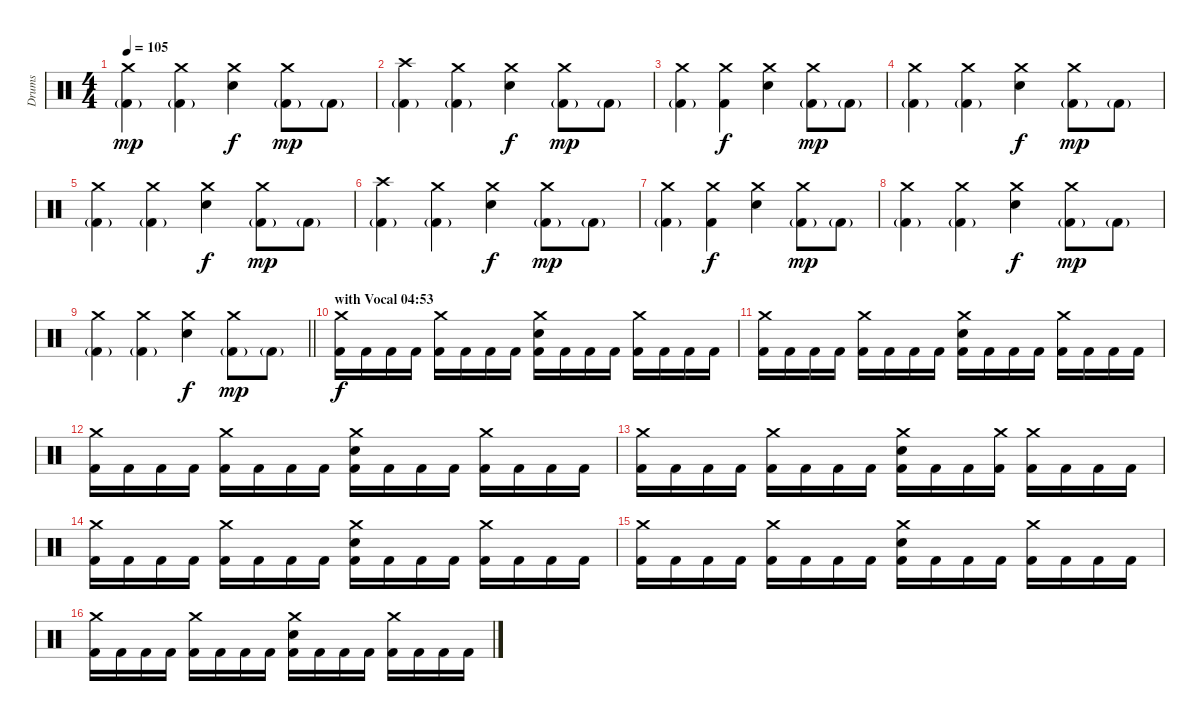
\track ("Drums" "Drums") {instrument percussion}
\staff {score}
\articulation defaults
\ts (4 4)
\tempo 105
\clef neutral
\ks c
("Crash medium (hit)" "Kick (hit) 2"{g}).4{dy mp} ("Crash medium (hit)" "Kick (hit) 2"{g}).4 ("Crash medium (hit)" "Electric Snare (hit)").4{dy f} ("Crash medium (hit)" "Kick (hit) 2"{g}).8{dy mp} "Kick (hit) 2"{g}.8 |
("Crash high (hit)" "Kick (hit) 2"{g}).4 ("Crash medium (hit)" "Kick (hit) 2"{g}).4 ("Crash medium (hit)" "Electric Snare (hit)").4{dy f} ("Crash medium (hit)" "Kick (hit) 2"{g}).8{dy mp} "Kick (hit) 2"{g}.8 |
("Crash medium (hit)" "Kick (hit) 2"{g}).4 ("Crash medium (hit)" "Kick (hit) 2").4{dy f} ("Crash medium (hit)" "Electric Snare (hit)").4 ("Crash medium (hit)" "Kick (hit) 2"{g}).8{dy mp} "Kick (hit) 2"{g}.8 |
("Crash medium (hit)" "Kick (hit) 2"{g}).4 ("Crash medium (hit)" "Kick (hit) 2"{g}).4 ("Crash medium (hit)" "Electric Snare (hit)").4{dy f} ("Crash medium (hit)" "Kick (hit) 2"{g}).8{dy mp} "Kick (hit) 2"{g}.8 |
("Crash medium (hit)" "Kick (hit) 2"{g}).4 ("Crash medium (hit)" "Kick (hit) 2"{g}).4 ("Crash medium (hit)" "Electric Snare (hit)").4{dy f} ("Crash medium (hit)" "Kick (hit) 2"{g}).8{dy mp} "Kick (hit) 2"{g}.8 |
("Crash high (hit)" "Kick (hit) 2"{g}).4 ("Crash medium (hit)" "Kick (hit) 2"{g}).4 ("Crash medium (hit)" "Electric Snare (hit)").4{dy f} ("Crash medium (hit)" "Kick (hit) 2"{g}).8{dy mp} "Kick (hit) 2"{g}.8 |
("Crash medium (hit)" "Kick (hit) 2"{g}).4 ("Crash medium (hit)" "Kick (hit) 2").4{dy f} ("Crash medium (hit)" "Electric Snare (hit)").4 ("Crash medium (hit)" "Kick (hit) 2"{g}).8{dy mp} "Kick (hit) 2"{g}.8 |
("Crash medium (hit)" "Kick (hit) 2"{g}).4 ("Crash medium (hit)" "Kick (hit) 2"{g}).4 ("Crash medium (hit)" "Electric Snare (hit)").4{dy f} ("Crash medium (hit)" "Kick (hit) 2"{g}).8{dy mp} "Kick (hit) 2"{g}.8 |
\barLineRight lightlight
("Crash medium (hit)" "Kick (hit) 2"{g}).4 ("Crash medium (hit)" "Kick (hit) 2"{g}).4 ("Crash medium (hit)" "Electric Snare (hit)").4{dy f} ("Crash medium (hit)" "Kick (hit) 2"{g}).8{dy mp volume 16} "Kick (hit) 2"{g}.8 |
\section ("" "with Vocal 04:53")
("Crash medium (hit)" "Kick (hit) 2").16{dy f volume 13} "Kick (hit) 2".16 "Kick (hit) 2".16 "Kick (hit) 2".16 ("Crash medium (hit)" "Kick (hit) 2").16 "Kick (hit) 2".16 "Kick (hit) 2".16 "Kick (hit) 2".16 ("Crash medium (hit)" "Electric Snare (hit)" "Kick (hit) 2").16 "Kick (hit) 2".16 "Kick (hit) 2".16 "Kick (hit) 2".16 ("Crash medium (hit)" "Kick (hit) 2").16 "Kick (hit) 2".16 "Kick (hit) 2".16 "Kick (hit) 2".16 |
("Crash medium (hit)" "Kick (hit) 2").16{volume 13} "Kick (hit) 2".16 "Kick (hit) 2".16 "Kick (hit) 2".16 ("Crash medium (hit)" "Kick (hit) 2").16 "Kick (hit) 2".16 "Kick (hit) 2".16 "Kick (hit) 2".16 ("Crash medium (hit)" "Electric Snare (hit)" "Kick (hit) 2").16 "Kick (hit) 2".16 "Kick (hit) 2".16 "Kick (hit) 2".16 ("Crash medium (hit)" "Kick (hit) 2").16 "Kick (hit) 2".16 "Kick (hit) 2".16 "Kick (hit) 2".16 |
("Crash medium (hit)" "Kick (hit) 2").16{volume 13} "Kick (hit) 2".16 "Kick (hit) 2".16 "Kick (hit) 2".16 ("Crash medium (hit)" "Kick (hit) 2").16 "Kick (hit) 2".16 "Kick (hit) 2".16 "Kick (hit) 2".16 ("Crash medium (hit)" "Electric Snare (hit)" "Kick (hit) 2").16 "Kick (hit) 2".16 "Kick (hit) 2".16 "Kick (hit) 2".16 ("Crash medium (hit)" "Kick (hit) 2").16 "Kick (hit) 2".16 "Kick (hit) 2".16 "Kick (hit) 2".16 |
("Crash medium (hit)" "Kick (hit) 2").16{volume 13} "Kick (hit) 2".16 "Kick (hit) 2".16 "Kick (hit) 2".16 ("Crash medium (hit)" "Kick (hit) 2").16 "Kick (hit) 2".16 "Kick (hit) 2".16 "Kick (hit) 2".16 ("Crash medium (hit)" "Electric Snare (hit)" "Kick (hit) 2").16 "Kick (hit) 2".16 "Kick (hit) 2".16 ("Crash medium (hit)" "Kick (hit) 2").16 ("Crash medium (hit)" "Kick (hit) 2").16 "Kick (hit) 2".16 "Kick (hit) 2".16 "Kick (hit) 2".16 |
("Crash medium (hit)" "Kick (hit) 2").16{volume 13} "Kick (hit) 2".16 "Kick (hit) 2".16 "Kick (hit) 2".16 ("Crash medium (hit)" "Kick (hit) 2").16 "Kick (hit) 2".16 "Kick (hit) 2".16 "Kick (hit) 2".16 ("Crash medium (hit)" "Electric Snare (hit)" "Kick (hit) 2").16 "Kick (hit) 2".16 "Kick (hit) 2".16 "Kick (hit) 2".16 ("Crash medium (hit)" "Kick (hit) 2").16 "Kick (hit) 2".16 "Kick (hit) 2".16 "Kick (hit) 2".16 |
("Crash medium (hit)" "Kick (hit) 2").16{volume 13} "Kick (hit) 2".16 "Kick (hit) 2".16 "Kick (hit) 2".16 ("Crash medium (hit)" "Kick (hit) 2").16 "Kick (hit) 2".16 "Kick (hit) 2".16 "Kick (hit) 2".16 ("Crash medium (hit)" "Electric Snare (hit)" "Kick (hit) 2").16 "Kick (hit) 2".16 "Kick (hit) 2".16 "Kick (hit) 2".16 ("Crash medium (hit)" "Kick (hit) 2").16 "Kick (hit) 2".16 "Kick (hit) 2".16 "Kick (hit) 2".16 |
("Crash medium (hit)" "Kick (hit) 2").16{volume 13} "Kick (hit) 2".16 "Kick (hit) 2".16 "Kick (hit) 2".16 ("Crash medium (hit)" "Kick (hit) 2").16 "Kick (hit) 2".16 "Kick (hit) 2".16 "Kick (hit) 2".16 ("Crash medium (hit)" "Electric Snare (hit)" "Kick (hit) 2").16 "Kick (hit) 2".16 "Kick (hit) 2".16 "Kick (hit) 2".16 ("Crash medium (hit)" "Kick (hit) 2").16 "Kick (hit) 2".16 "Kick (hit) 2".16 "Kick (hit) 2".16
